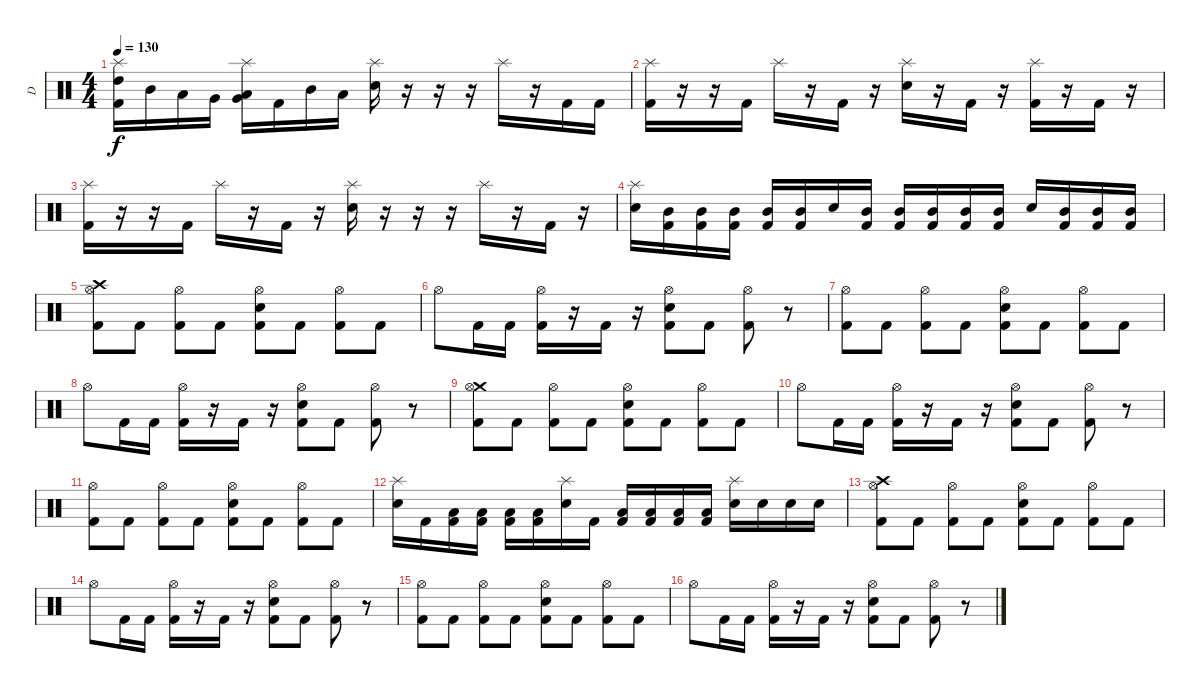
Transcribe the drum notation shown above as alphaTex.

\track ("D" "D") {instrument percussion}
\staff {score}
\articulation defaults
\ts (4 4)
\tempo 130
\clef neutral
\ks c
("High Tom (hit)" "Kick (hit) 2" "Splash (hit)").16{dy f} "Mid Tom (hit)".16 "Low Tom (hit)".16 "Very Low Tom (hit)".16 ("Low Tom (hit)" "Very Low Tom (hit)" "Splash (hit)").16 "Kick (hit) 2".16 "Mid Tom (hit)".16 "Low Tom (hit)".16 ("Electric Snare (hit)" "Splash (hit)").16 r.16 r.16 r.16 "Splash (hit)".16 r.16 "Kick (hit) 2".16 "Kick (hit) 2".16 |
("Kick (hit) 2" "Splash (hit)").16 r.16 r.16 "Kick (hit) 2".16 "Splash (hit)".16 r.16 "Kick (hit) 2".16 r.16 ("Electric Snare (hit)" "Splash (hit)").16 r.16 "Kick (hit) 2".16 r.16 ("Kick (hit) 2" "Splash (hit)").16 r.16 "Kick (hit) 2".16 r.16 |
("Kick (hit) 2" "Splash (hit)").16 r.16 r.16 "Kick (hit) 2".16 "Splash (hit)".16 r.16 "Kick (hit) 2".16 r.16 ("Electric Snare (hit)" "Splash (hit)").16 r.16 r.16 r.16 "Splash (hit)".16 r.16 "Kick (hit) 2".16 r.16 |
("Electric Snare (hit)" "Splash (hit)").16 ("Mid Tom (hit)" "Kick (hit) 2").16 ("Mid Tom (hit)" "Kick (hit) 2").16 ("Mid Tom (hit)" "Kick (hit) 2").16 ("Mid Tom (hit)" "Kick (hit) 2").16 ("Mid Tom (hit)" "Kick (hit) 2").16 "Electric Snare (hit)".16 ("Mid Tom (hit)" "Kick (hit) 2").16 ("Mid Tom (hit)" "Kick (hit) 2").16 ("Mid Tom (hit)" "Kick (hit) 2").16 ("Mid Tom (hit)" "Kick (hit) 2").16 ("Mid Tom (hit)" "Kick (hit) 2").16 "Electric Snare (hit)".16 ("Mid Tom (hit)" "Kick (hit) 2").16 ("Mid Tom (hit)" "Kick (hit) 2").16 ("Mid Tom (hit)" "Kick (hit) 2").16 |
("Crash high (hit)" "Kick (hit) 2" "Hi-Hat (open)").8 "Kick (hit) 2".8 ("Kick (hit) 2" "Hi-Hat (open)").8 "Kick (hit) 2".8 ("Electric Snare (hit)" "Kick (hit) 2" "Hi-Hat (open)").8 "Kick (hit) 2".8 ("Kick (hit) 2" "Hi-Hat (open)").8 "Kick (hit) 2".8 |
"Hi-Hat (open)".8 "Kick (hit) 2".16 "Kick (hit) 2".16 ("Kick (hit) 2" "Hi-Hat (open)").16 r.16 "Kick (hit) 2".16 r.16 ("Electric Snare (hit)" "Kick (hit) 2" "Hi-Hat (open)").8 "Kick (hit) 2".8 ("Kick (hit) 2" "Hi-Hat (open)").8 r.8 |
("Kick (hit) 2" "Hi-Hat (open)").8 "Kick (hit) 2".8 ("Kick (hit) 2" "Hi-Hat (open)").8 "Kick (hit) 2".8 ("Electric Snare (hit)" "Kick (hit) 2" "Hi-Hat (open)").8 "Kick (hit) 2".8 ("Kick (hit) 2" "Hi-Hat (open)").8 "Kick (hit) 2".8 |
"Hi-Hat (open)".8 "Kick (hit) 2".16 "Kick (hit) 2".16 ("Kick (hit) 2" "Hi-Hat (open)").16 r.16 "Kick (hit) 2".16 r.16 ("Electric Snare (hit)" "Kick (hit) 2" "Hi-Hat (open)").8 "Kick (hit) 2".8 ("Kick (hit) 2" "Hi-Hat (open)").8 r.8 |
("Crash medium (hit)" "Kick (hit) 2" "Hi-Hat (open)").8 "Kick (hit) 2".8 ("Kick (hit) 2" "Hi-Hat (open)").8 "Kick (hit) 2".8 ("Electric Snare (hit)" "Kick (hit) 2" "Hi-Hat (open)").8 "Kick (hit) 2".8 ("Kick (hit) 2" "Hi-Hat (open)").8 "Kick (hit) 2".8 |
"Hi-Hat (open)".8 "Kick (hit) 2".16 "Kick (hit) 2".16 ("Kick (hit) 2" "Hi-Hat (open)").16 r.16 "Kick (hit) 2".16 r.16 ("Electric Snare (hit)" "Kick (hit) 2" "Hi-Hat (open)").8 "Kick (hit) 2".8 ("Kick (hit) 2" "Hi-Hat (open)").8 r.8 |
("Kick (hit) 2" "Hi-Hat (open)").8 "Kick (hit) 2".8 ("Kick (hit) 2" "Hi-Hat (open)").8 "Kick (hit) 2".8 ("Electric Snare (hit)" "Kick (hit) 2" "Hi-Hat (open)").8 "Kick (hit) 2".8 ("Kick (hit) 2" "Hi-Hat (open)").8 "Kick (hit) 2".8 |
("Electric Snare (hit)" "Splash (hit)").16 "Kick (hit) 2".16 ("Low Tom (hit)" "Kick (hit) 2").16 ("Low Tom (hit)" "Kick (hit) 2").16 ("Low Tom (hit)" "Kick (hit) 2").16 ("Low Tom (hit)" "Kick (hit) 2").16 ("Electric Snare (hit)" "Splash (hit)").16 "Kick (hit) 2".16 ("Low Tom (hit)" "Kick (hit) 2").16 ("Low Tom (hit)" "Kick (hit) 2").16 ("Low Tom (hit)" "Kick (hit) 2").16 ("Low Tom (hit)" "Kick (hit) 2").16 ("Electric Snare (hit)" "Splash (hit)").16 "Electric Snare (hit)".16 "Electric Snare (hit)".16 "Electric Snare (hit)".16 |
("Crash high (hit)" "Kick (hit) 2" "Hi-Hat (open)").8 "Kick (hit) 2".8 ("Kick (hit) 2" "Hi-Hat (open)").8 "Kick (hit) 2".8 ("Electric Snare (hit)" "Kick (hit) 2" "Hi-Hat (open)").8 "Kick (hit) 2".8 ("Kick (hit) 2" "Hi-Hat (open)").8 "Kick (hit) 2".8 |
"Hi-Hat (open)".8 "Kick (hit) 2".16 "Kick (hit) 2".16 ("Kick (hit) 2" "Hi-Hat (open)").16 r.16 "Kick (hit) 2".16 r.16 ("Electric Snare (hit)" "Kick (hit) 2" "Hi-Hat (open)").8 "Kick (hit) 2".8 ("Kick (hit) 2" "Hi-Hat (open)").8 r.8 |
("Kick (hit) 2" "Hi-Hat (open)").8 "Kick (hit) 2".8 ("Kick (hit) 2" "Hi-Hat (open)").8 "Kick (hit) 2".8 ("Electric Snare (hit)" "Kick (hit) 2" "Hi-Hat (open)").8 "Kick (hit) 2".8 ("Kick (hit) 2" "Hi-Hat (open)").8 "Kick (hit) 2".8 |
"Hi-Hat (open)".8 "Kick (hit) 2".16 "Kick (hit) 2".16 ("Kick (hit) 2" "Hi-Hat (open)").16 r.16 "Kick (hit) 2".16 r.16 ("Electric Snare (hit)" "Kick (hit) 2" "Hi-Hat (open)").8 "Kick (hit) 2".8 ("Kick (hit) 2" "Hi-Hat (open)").8 r.8
